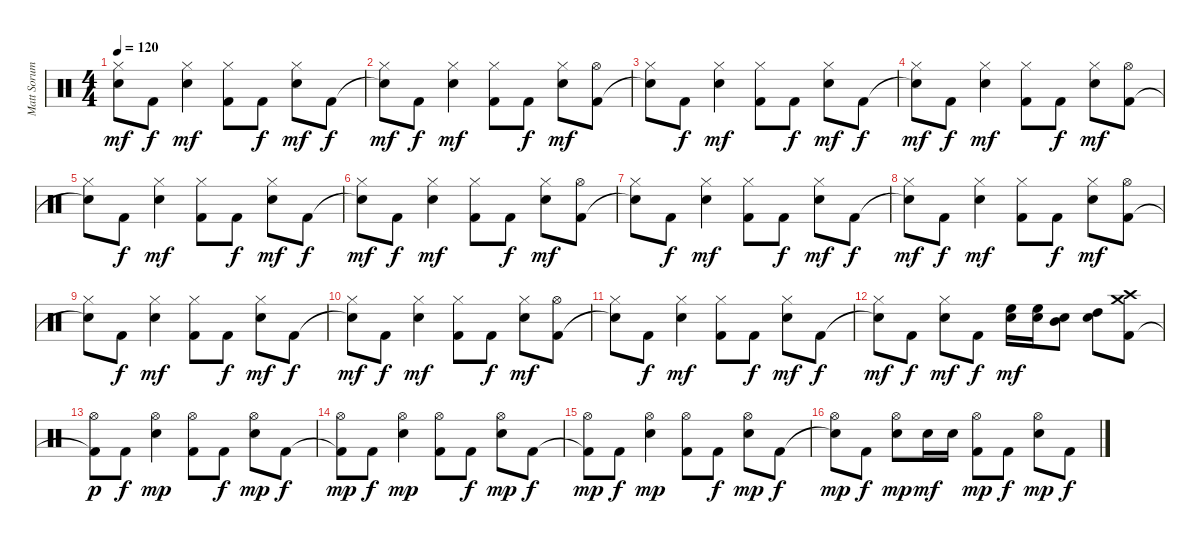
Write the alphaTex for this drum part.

\track ("Matt Sorum" "Matt Sorum") {instrument percussion}
\staff {score}
\articulation defaults
\ts (4 4)
\tempo 120
\clef neutral
\ks c
("Snare (hit)"{t} "Hi-Hat (closed)").8{dy mf} "Kick (hit) 2".8{dy f} ("Snare (hit) 2" "Hi-Hat (closed)").4{dy mf} ("Kick (hit) 2" "Hi-Hat (closed)").8 "Kick (hit) 2".8{dy f} ("Snare (hit) 2" "Hi-Hat (closed)").8{dy mf} "Kick (hit) 2".8{dy f} |
("Snare (hit)"{t} "Hi-Hat (closed)").8{dy mf} "Kick (hit) 2".8{dy f} ("Snare (hit) 2" "Hi-Hat (closed)").4{dy mf} ("Kick (hit) 2" "Hi-Hat (closed)").8 "Kick (hit) 2".8{dy f} ("Snare (hit) 2" "Hi-Hat (closed)").8{dy mf} ("Kick (hit) 2" "Hi-Hat (open)").8 |
("Snare (hit)"{t} "Hi-Hat (closed)").8 "Kick (hit) 2".8{dy f} ("Snare (hit) 2" "Hi-Hat (closed)").4{dy mf} ("Kick (hit) 2" "Hi-Hat (closed)").8 "Kick (hit) 2".8{dy f} ("Snare (hit) 2" "Hi-Hat (closed)").8{dy mf} "Kick (hit) 2".8{dy f} |
("Snare (hit)"{t} "Hi-Hat (closed)").8{dy mf} "Kick (hit) 2".8{dy f} ("Snare (hit) 2" "Hi-Hat (closed)").4{dy mf} ("Kick (hit) 2" "Hi-Hat (closed)").8 "Kick (hit) 2".8{dy f} ("Snare (hit) 2" "Hi-Hat (closed)").8{dy mf} ("Kick (hit) 2" "Hi-Hat (open)").8 |
("Snare (hit)"{t} "Hi-Hat (closed)").8 "Kick (hit) 2".8{dy f} ("Snare (hit) 2" "Hi-Hat (closed)").4{dy mf} ("Kick (hit) 2" "Hi-Hat (closed)").8 "Kick (hit) 2".8{dy f} ("Snare (hit) 2" "Hi-Hat (closed)").8{dy mf} "Kick (hit) 2".8{dy f} |
("Snare (hit)"{t} "Hi-Hat (closed)").8{dy mf} "Kick (hit) 2".8{dy f} ("Snare (hit) 2" "Hi-Hat (closed)").4{dy mf} ("Kick (hit) 2" "Hi-Hat (closed)").8 "Kick (hit) 2".8{dy f} ("Snare (hit) 2" "Hi-Hat (closed)").8{dy mf} ("Kick (hit) 2" "Hi-Hat (open)").8 |
("Snare (hit)"{t} "Hi-Hat (closed)").8 "Kick (hit) 2".8{dy f} ("Snare (hit) 2" "Hi-Hat (closed)").4{dy mf} ("Kick (hit) 2" "Hi-Hat (closed)").8 "Kick (hit) 2".8{dy f} ("Snare (hit) 2" "Hi-Hat (closed)").8{dy mf} "Kick (hit) 2".8{dy f} |
("Snare (hit)"{t} "Hi-Hat (closed)").8{dy mf} "Kick (hit) 2".8{dy f} ("Snare (hit) 2" "Hi-Hat (closed)").4{dy mf} ("Kick (hit) 2" "Hi-Hat (closed)").8 "Kick (hit) 2".8{dy f} ("Snare (hit) 2" "Hi-Hat (closed)").8{dy mf} ("Kick (hit) 2" "Hi-Hat (open)").8 |
("Snare (hit)"{t} "Hi-Hat (closed)").8 "Kick (hit) 2".8{dy f} ("Snare (hit) 2" "Hi-Hat (closed)").4{dy mf} ("Kick (hit) 2" "Hi-Hat (closed)").8 "Kick (hit) 2".8{dy f} ("Snare (hit) 2" "Hi-Hat (closed)").8{dy mf} "Kick (hit) 2".8{dy f} |
("Snare (hit)"{t} "Hi-Hat (closed)").8{dy mf} "Kick (hit) 2".8{dy f} ("Snare (hit) 2" "Hi-Hat (closed)").4{dy mf} ("Kick (hit) 2" "Hi-Hat (closed)").8 "Kick (hit) 2".8{dy f} ("Snare (hit) 2" "Hi-Hat (closed)").8{dy mf} ("Kick (hit) 2" "Hi-Hat (open)").8 |
("Snare (hit)"{t} "Hi-Hat (closed)").8 "Kick (hit) 2".8{dy f} ("Snare (hit) 2" "Hi-Hat (closed)").4{dy mf} ("Kick (hit) 2" "Hi-Hat (closed)").8 "Kick (hit) 2".8{dy f} ("Snare (hit) 2" "Hi-Hat (closed)").8{dy mf} "Kick (hit) 2".8{dy f} |
("Snare (hit)"{t} "Hi-Hat (closed)").8{dy mf} "Kick (hit) 2".8{dy f} ("Snare (hit) 2" "Hi-Hat (closed)").8{dy mf} "Kick (hit) 2".8{dy f} ("Snare (hit) 2" "High Floor Tom (hit)").16{dy mf} ("Snare (hit) 2" "High Floor Tom (hit)").16 ("Snare (hit) 2" "Mid Tom (hit)").8 ("Snare (hit) 2" "High Tom (hit)").8 ("Kick (hit) 2" "Crash medium (hit)" "Crash high (hit)").8 |
("Kick (hit) 2"{t} "Hi-Hat (open)").8{dy p} "Kick (hit) 2".8{dy f} ("Snare (hit) 2" "Hi-Hat (open)").4{dy mp} ("Kick (hit) 2" "Hi-Hat (open)").8 "Kick (hit) 2".8{dy f} ("Snare (hit) 2" "Hi-Hat (open)").8{dy mp} "Kick (hit) 2".8{dy f} |
("Kick (hit) 2"{t} "Hi-Hat (open)").8{dy mp} "Kick (hit) 2".8{dy f} ("Snare (hit) 2" "Hi-Hat (open)").4{dy mp} ("Kick (hit) 2" "Hi-Hat (open)").8 "Kick (hit) 2".8{dy f} ("Snare (hit) 2" "Hi-Hat (open)").8{dy mp} "Kick (hit) 2".8{dy f} |
("Kick (hit) 2"{t} "Hi-Hat (open)").8{dy mp} "Kick (hit) 2".8{dy f} ("Snare (hit) 2" "Hi-Hat (open)").4{dy mp} ("Kick (hit) 2" "Hi-Hat (open)").8 "Kick (hit) 2".8{dy f} ("Snare (hit) 2" "Hi-Hat (open)").8{dy mp} "Kick (hit) 2".8{dy f} |
("Snare (hit)"{t} "Hi-Hat (open)").8{dy mp} "Kick (hit) 2".8{dy f} ("Snare (hit) 2" "Hi-Hat (open)").8{dy mp} "Snare (hit) 2".16{dy mf} "Snare (hit) 2".16 ("Kick (hit) 2" "Hi-Hat (open)").8{dy mp} "Kick (hit) 2".8{dy f} ("Snare (hit) 2" "Hi-Hat (open)").8{dy mp} "Kick (hit) 2".8{dy f}
